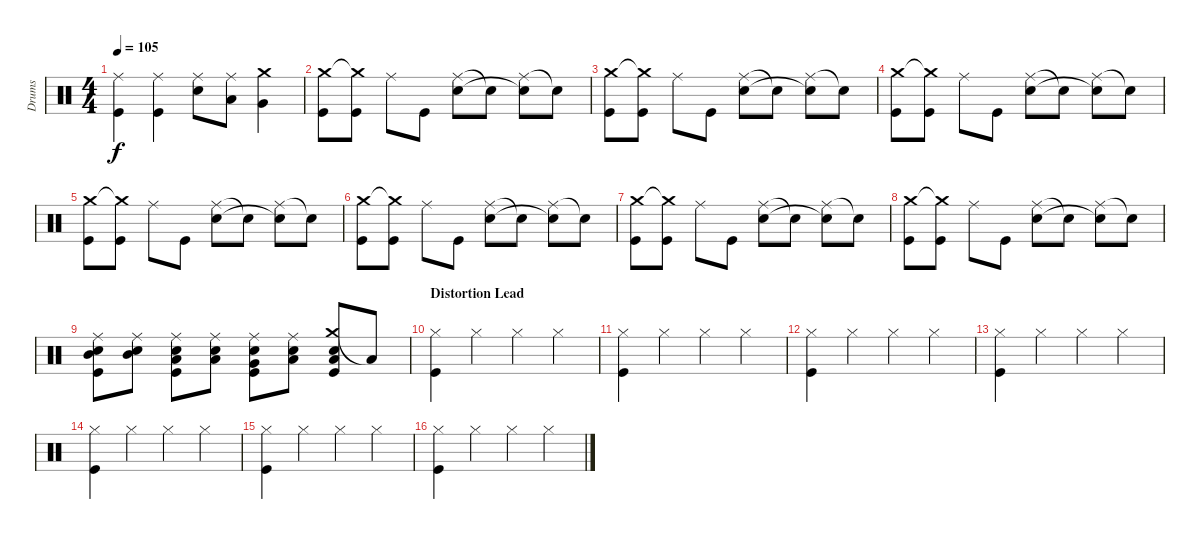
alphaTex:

\track ("Drums" "Drums") {instrument percussion}
\staff {score}
\articulation defaults
\ts (4 4)
\tempo 105
\clef neutral
\ks c
("Ride (middle)" "Kick (hit)").4{dy f} ("Ride (middle)" "Kick (hit)").4 ("Ride (middle)" "Snare (hit) 2").8 ("Ride (middle)" "Low Tom (hit)").8 ("Crash medium (hit)" "Very Low Tom (hit)").4 |
("Crash medium (hit)" "Kick (hit)").8 ("Crash medium (hit)"{t} "Kick (hit)").8 "Ride (middle)".8 "Kick (hit)".8 ("Ride (middle)" "Snare (hit) 2").8 "Snare (hit) 2"{t}.8 ("Ride (middle)" "Snare (hit) 2"{t}).8 "Snare (hit) 2"{t}.8 |
("Crash medium (hit)" "Kick (hit)").8 ("Crash medium (hit)"{t} "Kick (hit)").8 "Ride (middle)".8 "Kick (hit)".8 ("Ride (middle)" "Snare (hit) 2").8 "Snare (hit) 2"{t}.8 ("Ride (middle)" "Snare (hit) 2"{t}).8 "Snare (hit) 2"{t}.8 |
("Crash medium (hit)" "Kick (hit)").8 ("Crash medium (hit)"{t} "Kick (hit)").8 "Ride (middle)".8 "Kick (hit)".8 ("Ride (middle)" "Snare (hit) 2").8 "Snare (hit) 2"{t}.8 ("Ride (middle)" "Snare (hit) 2"{t}).8 "Snare (hit) 2"{t}.8 |
("Crash medium (hit)" "Kick (hit)").8 ("Crash medium (hit)"{t} "Kick (hit)").8 "Ride (middle)".8 "Kick (hit)".8 ("Ride (middle)" "Snare (hit) 2").8 "Snare (hit) 2"{t}.8 ("Ride (middle)" "Snare (hit) 2"{t}).8 "Snare (hit) 2"{t}.8 |
("Crash medium (hit)" "Kick (hit)").8 ("Crash medium (hit)"{t} "Kick (hit)").8 "Ride (middle)".8 "Kick (hit)".8 ("Ride (middle)" "Snare (hit) 2").8 "Snare (hit) 2"{t}.8 ("Ride (middle)" "Snare (hit) 2"{t}).8 "Snare (hit) 2"{t}.8 |
("Crash medium (hit)" "Kick (hit)").8 ("Crash medium (hit)"{t} "Kick (hit)").8 "Ride (middle)".8 "Kick (hit)".8 ("Ride (middle)" "Snare (hit) 2").8 "Snare (hit) 2"{t}.8 ("Ride (middle)" "Snare (hit) 2"{t}).8 "Snare (hit) 2"{t}.8 |
("Crash medium (hit)" "Kick (hit)").8 ("Crash medium (hit)"{t} "Kick (hit)").8 "Ride (middle)".8 "Kick (hit)".8 ("Ride (middle)" "Snare (hit) 2").8 "Snare (hit) 2"{t}.8 ("Ride (middle)" "Snare (hit) 2"{t}).8 "Snare (hit) 2"{t}.8 |
("Ride (middle)" "Mid Tom (hit)" "Snare (hit) 2" "Kick (hit)").8 ("Ride (middle)" "Mid Tom (hit)" "Snare (hit) 2").8 ("Ride (middle)" "Low Tom (hit)" "Snare (hit) 2" "Kick (hit)").8 ("Ride (middle)" "Low Tom (hit)" "Snare (hit) 2").8 ("Ride (middle)" "Very Low Tom (hit)" "Snare (hit) 2" "Kick (hit)").8 ("Ride (middle)" "Low Tom (hit)" "Snare (hit) 2").8 ("Crash medium (hit)" "Low Floor Tom (hit)" "Snare (hit) 2" "Kick (hit)").8 "Low Floor Tom (hit)"{t}.8 |
\section ("" "Distortion Lead")
("Hi-Hat (closed)" "Kick (hit)").4 "Hi-Hat (closed)".4 "Hi-Hat (closed)".4 "Hi-Hat (closed)".4 |
("Hi-Hat (closed)" "Kick (hit)").4 "Hi-Hat (closed)".4 "Hi-Hat (closed)".4 "Hi-Hat (closed)".4 |
("Hi-Hat (closed)" "Kick (hit)").4 "Hi-Hat (closed)".4 "Hi-Hat (closed)".4 "Hi-Hat (closed)".4 |
("Hi-Hat (closed)" "Kick (hit)").4 "Hi-Hat (closed)".4 "Hi-Hat (closed)".4 "Hi-Hat (closed)".4 |
("Hi-Hat (closed)" "Kick (hit)").4 "Hi-Hat (closed)".4 "Hi-Hat (closed)".4 "Hi-Hat (closed)".4 |
("Hi-Hat (closed)" "Kick (hit)").4 "Hi-Hat (closed)".4 "Hi-Hat (closed)".4 "Hi-Hat (closed)".4 |
("Hi-Hat (closed)" "Kick (hit)").4 "Hi-Hat (closed)".4 "Hi-Hat (closed)".4 "Hi-Hat (closed)".4
